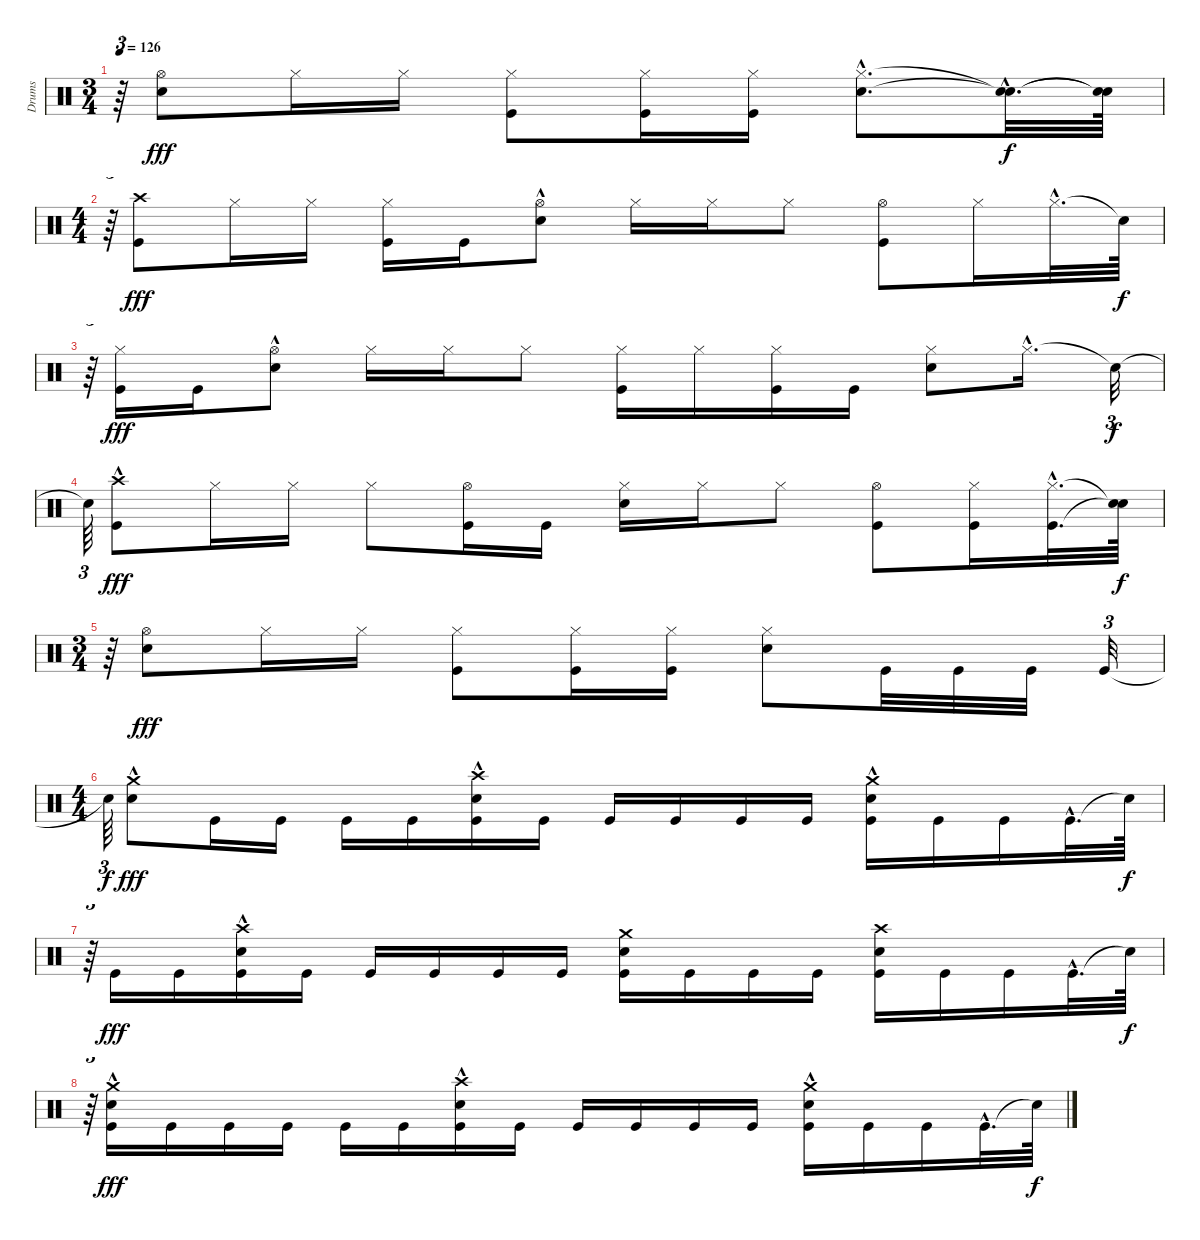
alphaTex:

\track ("Drums" "Drums") {instrument percussion}
\staff {score}
\articulation defaults
\ts (3 4)
\tempo 126
\clef neutral
\ks c
r.64{tu (3 2) dy f} ("Snare (hit) 2" "Hi-Hat (open)").8{dy fff} "Hi-Hat (closed)".16 "Hi-Hat (closed)".16 ("Kick (hit)" "Hi-Hat (closed)").8 ("Kick (hit)" "Hi-Hat (closed)").16 ("Kick (hit)" "Hi-Hat (closed)").16 ("Snare (hit) 2"{hac} "Hi-Hat (closed)"{hac}).8{d} ("Snare (hit)"{hac t} "Snare (hit)"{hac t}).32{d dy f} ("Snare (hit)"{t} "Snare (hit)"{t}).64 |
\ts (4 4)
r.64{tu (3 2)} ("Kick (hit)" "Crash high (hit)").8{dy fff} "Hi-Hat (closed)".16 "Hi-Hat (closed)".16 ("Kick (hit)" "Hi-Hat (closed)").16 "Kick (hit)".16 ("Snare (hit) 2"{hac} "Hi-Hat (open)").8 "Hi-Hat (closed)".16 "Hi-Hat (closed)".16 "Hi-Hat (closed)".8 ("Kick (hit)" "Hi-Hat (open)").8 "Hi-Hat (closed)".16 "Hi-Hat (closed)"{hac}.32{d} "Snare (hit)"{t}.64{dy f} |
r.64{tu (3 2)} ("Kick (hit)" "Hi-Hat (closed)").16{dy fff} "Kick (hit)".16 ("Snare (hit) 2"{hac} "Hi-Hat (open)").8 "Hi-Hat (closed)".16 "Hi-Hat (closed)".16 "Hi-Hat (closed)".8 ("Kick (hit)" "Hi-Hat (closed)").16 "Hi-Hat (closed)".16 ("Kick (hit)" "Hi-Hat (closed)").16 "Kick (hit)".16 ("Snare (hit) 2" "Hi-Hat (closed)").8 "Hi-Hat (closed)"{hac}.16{d} "Snare (hit)"{t}.32{tu (3 2) dy f} |
"Snare (hit)"{t}.64{tu (3 2)} ("Kick (hit)"{hac} "Crash high (hit)").8{dy fff} "Hi-Hat (closed)".16 "Hi-Hat (closed)".16 "Hi-Hat (closed)".8 ("Kick (hit)" "Hi-Hat (open)").16 "Kick (hit)".16 ("Snare (hit) 2" "Hi-Hat (closed)").16 "Hi-Hat (closed)".16 "Hi-Hat (closed)".8 ("Kick (hit)" "Hi-Hat (open)").8 ("Kick (hit)" "Hi-Hat (closed)").16 ("Kick (hit)"{hac} "Hi-Hat (closed)"{hac}).32{d} ("Snare (hit)"{t} "Snare (hit)"{t}).64{dy f} |
\ts (3 4)
r.64{tu (3 2)} ("Snare (hit) 2" "Hi-Hat (open)").8{dy fff} "Hi-Hat (closed)".16 "Hi-Hat (closed)".16 ("Kick (hit)" "Hi-Hat (closed)").8 ("Kick (hit)" "Hi-Hat (closed)").16 ("Kick (hit)" "Hi-Hat (closed)").16 ("Snare (hit) 2" "Hi-Hat (closed)").8 "Kick (hit)".32 "Kick (hit)".32 "Kick (hit)".32 "Kick (hit)".32{tu (3 2)} |
\ts (4 4)
"Snare (hit)"{t}.64{tu (3 2) dy f} ("Snare (hit) 2" "Crash medium (hit)"{hac}).8{dy fff} "Kick (hit)".16 "Kick (hit)".16 "Kick (hit)".16 "Kick (hit)".16 ("Kick (hit)" "Snare (hit) 2" "Crash high (hit)"{hac}).16 "Kick (hit)".16 "Kick (hit)".16 "Kick (hit)".16 "Kick (hit)".16 "Kick (hit)".16 ("Kick (hit)" "Snare (hit) 2" "Crash medium (hit)"{hac}).16 "Kick (hit)".16 "Kick (hit)".16 "Kick (hit)"{hac}.32{d} "Snare (hit)"{t}.64{dy f} |
r.64{tu (3 2)} "Kick (hit)".16{dy fff} "Kick (hit)".16 ("Kick (hit)" "Snare (hit) 2" "Crash high (hit)"{hac}).16 "Kick (hit)".16 "Kick (hit)".16 "Kick (hit)".16 "Kick (hit)".16 "Kick (hit)".16 ("Kick (hit)" "Snare (hit) 2" "Crash medium (hit)").16 "Kick (hit)".16 "Kick (hit)".16 "Kick (hit)".16 ("Kick (hit)" "Snare (hit) 2" "Crash high (hit)").16 "Kick (hit)".16 "Kick (hit)".16 "Kick (hit)"{hac}.32{d} "Snare (hit)"{t}.64{dy f} |
r.64{tu (3 2)} ("Kick (hit)" "Snare (hit) 2" "Crash medium (hit)"{hac}).16{dy fff} "Kick (hit)".16 "Kick (hit)".16 "Kick (hit)".16 "Kick (hit)".16 "Kick (hit)".16 ("Kick (hit)" "Snare (hit) 2" "Crash high (hit)"{hac}).16 "Kick (hit)".16 "Kick (hit)".16 "Kick (hit)".16 "Kick (hit)".16 "Kick (hit)".16 ("Kick (hit)" "Snare (hit) 2" "Crash medium (hit)"{hac}).16 "Kick (hit)".16 "Kick (hit)".16 "Kick (hit)"{hac}.32{d} "Snare (hit)"{t}.64{dy f}
